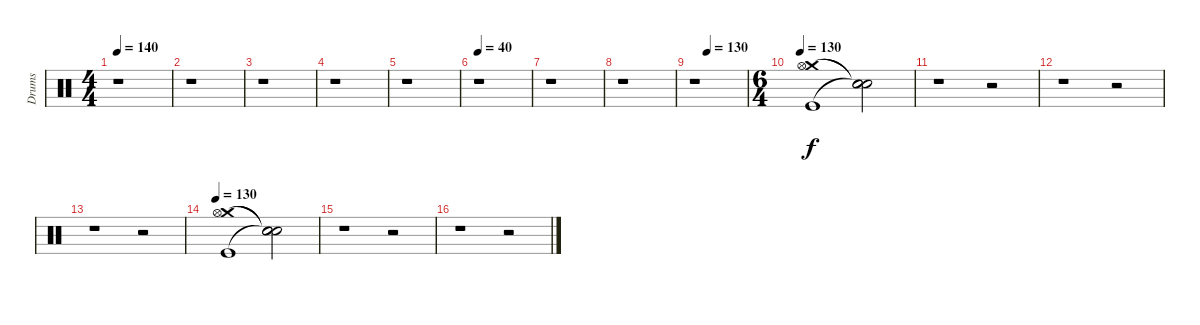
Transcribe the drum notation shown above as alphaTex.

\track ("Drums" "Drums") {instrument percussion}
\staff {score}
\articulation defaults
\ts (4 4)
\tempo 140
\clef neutral
\ks c
r.1{dy mf} |
r.1 |
r.1 |
r.1 |
r.1 |
\tempo 40
r.1 |
r.1 |
r.1 |
\tempo (130 0.25)
r.1 |
\ts (6 4)
\tempo 130
("Crash medium (hit)" "Hi-Hat (open)" "Kick (hit)").1{dy f} ("Snare (hit)"{t} "Snare (hit)"{t} "Snare (hit)"{t}).2 |
r.1 r.2 |
r.1 r.2 |
r.1 r.2 |
\tempo 130
("Crash medium (hit)" "Hi-Hat (open)" "Kick (hit)").1 ("Snare (hit)"{t} "Snare (hit)"{t} "Snare (hit)"{t}).2 |
r.1 r.2 |
r.1 r.2
